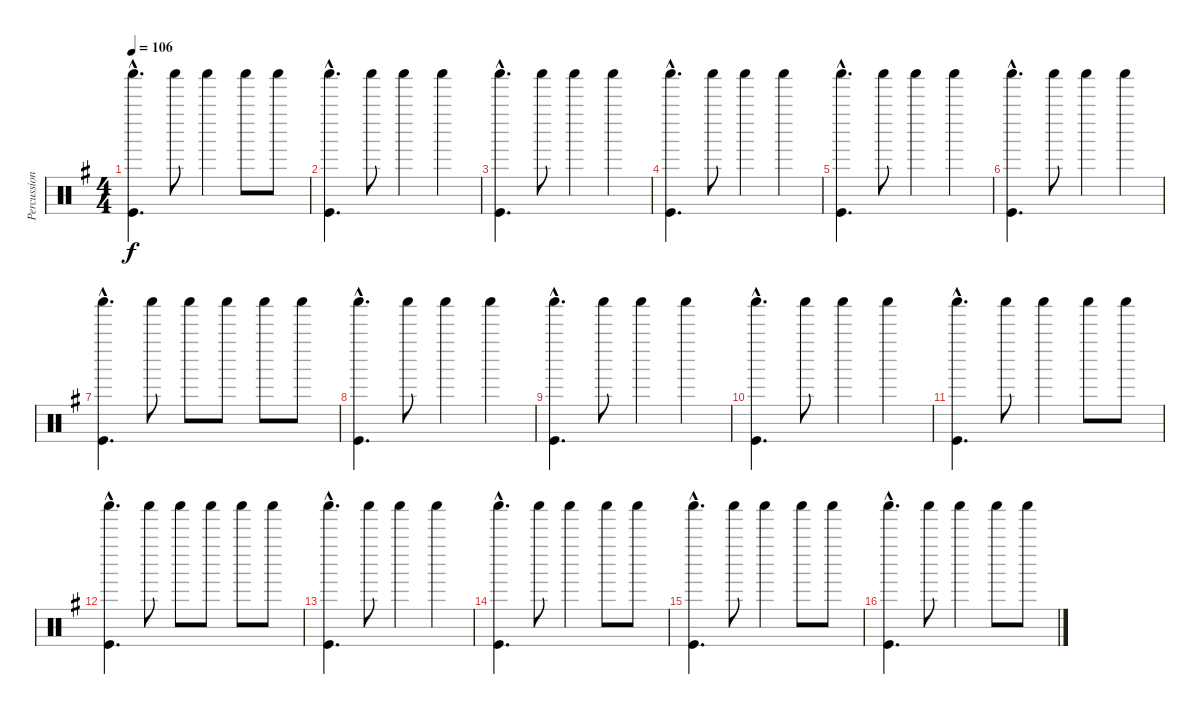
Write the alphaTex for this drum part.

\track ("Percussion" "Percussion") {instrument percussion}
\staff {score}
\articulation defaults
\ts (4 4)
\tempo 106
\clef neutral
\ks g
("Shaker (hit)"{hac} "Kick (hit)"{hac}).4{d dy f} "Shaker (hit)".8 "Shaker (hit)".4 "Shaker (hit)".8 "Shaker (hit)".8 |
("Shaker (hit)"{hac} "Kick (hit)"{hac}).4{d} "Shaker (hit)".8 "Shaker (hit)".4 "Shaker (hit)".4 |
("Shaker (hit)"{hac} "Kick (hit)"{hac}).4{d} "Shaker (hit)".8 "Shaker (hit)".4 "Shaker (hit)".4 |
("Shaker (hit)"{hac} "Kick (hit)"{hac}).4{d} "Shaker (hit)".8 "Shaker (hit)".4 "Shaker (hit)".4 |
("Shaker (hit)"{hac} "Kick (hit)"{hac}).4{d} "Shaker (hit)".8 "Shaker (hit)".4 "Shaker (hit)".4 |
("Shaker (hit)"{hac} "Kick (hit)"{hac}).4{d} "Shaker (hit)".8 "Shaker (hit)".4 "Shaker (hit)".4 |
("Shaker (hit)"{hac} "Kick (hit)"{hac}).4{d} "Shaker (hit)".8 "Shaker (hit)".8 "Shaker (hit)".8 "Shaker (hit)".8 "Shaker (hit)".8 |
("Shaker (hit)"{hac} "Kick (hit)"{hac}).4{d} "Shaker (hit)".8 "Shaker (hit)".4 "Shaker (hit)".4 |
("Shaker (hit)"{hac} "Kick (hit)"{hac}).4{d} "Shaker (hit)".8 "Shaker (hit)".4 "Shaker (hit)".4 |
("Shaker (hit)"{hac} "Kick (hit)"{hac}).4{d} "Shaker (hit)".8 "Shaker (hit)".4 "Shaker (hit)".4 |
("Shaker (hit)"{hac} "Kick (hit)"{hac}).4{d} "Shaker (hit)".8 "Shaker (hit)".4 "Shaker (hit)".8 "Shaker (hit)".8 |
("Shaker (hit)"{hac} "Kick (hit)"{hac}).4{d} "Shaker (hit)".8 "Shaker (hit)".8 "Shaker (hit)".8 "Shaker (hit)".8 "Shaker (hit)".8 |
("Shaker (hit)"{hac} "Kick (hit)"{hac}).4{d} "Shaker (hit)".8 "Shaker (hit)".4 "Shaker (hit)".4 |
("Shaker (hit)"{hac} "Kick (hit)"{hac}).4{d} "Shaker (hit)".8 "Shaker (hit)".4 "Shaker (hit)".8 "Shaker (hit)".8 |
("Shaker (hit)"{hac} "Kick (hit)"{hac}).4{d} "Shaker (hit)".8 "Shaker (hit)".4 "Shaker (hit)".8 "Shaker (hit)".8 |
("Shaker (hit)"{hac} "Kick (hit)"{hac}).4{d} "Shaker (hit)".8 "Shaker (hit)".4 "Shaker (hit)".8 "Shaker (hit)".8
